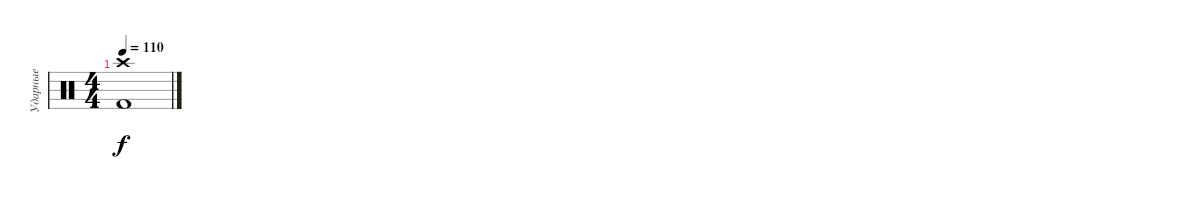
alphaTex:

\track ("Ударные" "Ударные") {instrument percussion}
\staff {score}
\articulation defaults
\ts (4 4)
\tempo 110
\clef neutral
\ks c
("Kick (hit) 2" "Crash high (hit)").1{dy f}
